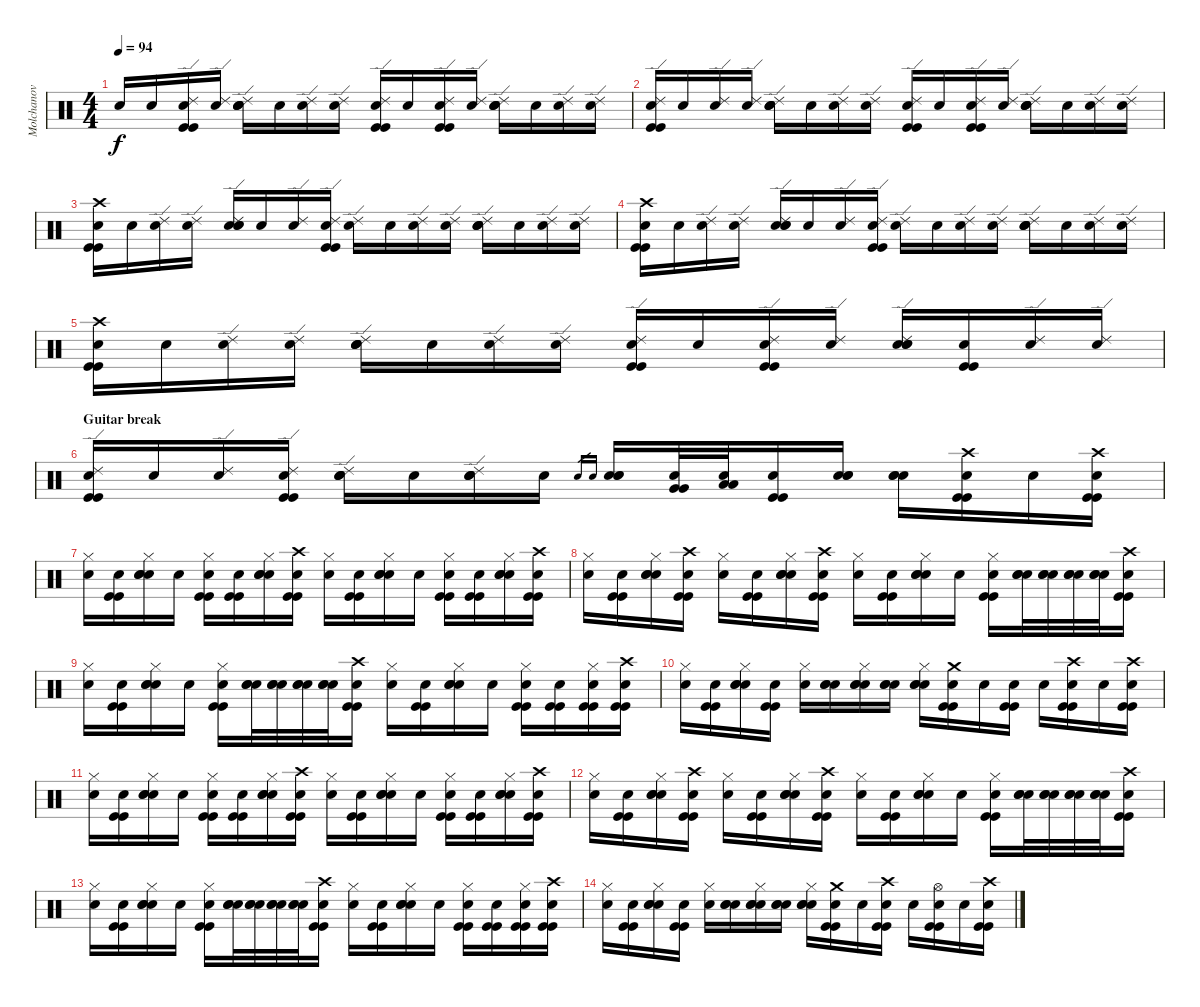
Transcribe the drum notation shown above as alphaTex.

\track ("Molchanov" "Molchanov") {instrument percussion}
\staff {score}
\articulation defaults
\ts (4 4)
\tempo 94
\clef neutral
\ks c "Snare (hit)"{x}.16{dy f} "Snare (hit)"{x}.16
("Ride (edge) 2" "Kick (hit)" "Kick (hit)" "Snare (hit)"{x}).16 ("Ride (edge) 2" "Snare (hit)"{x}).16 ("Ride (edge) 2" "Electric Snare (hit)" "Electric Snare (hit)" "Snare (hit)"{x}).16 "Snare (hit)"{x}.16 ("Ride (edge) 2" "Snare (hit)"{x}).16 ("Ride (edge) 2" "Snare (hit)"{x}).16 ("Ride (edge) 2" "Kick (hit)" "Kick (hit)" "Snare (hit)"{x}).16 "Snare (hit)"{x}.16 ("Ride (edge) 2" "Kick (hit)" "Kick (hit)" "Snare (hit)"{x}).16 ("Ride (edge) 2" "Snare (hit)"{x}).16 ("Ride (edge) 2" "Electric Snare (hit)" "Electric Snare (hit)" "Snare (hit)"{x}).16 "Snare (hit)"{x}.16 ("Ride (edge) 2" "Snare (hit)"{x}).16 ("Ride (edge) 2" "Snare (hit)"{x}).16 |
("Ride (edge) 2" "Kick (hit)" "Kick (hit)" "Snare (hit)"{x}).16 "Snare (hit)"{x}.16 ("Ride (edge) 2" "Snare (hit)"{x}).16 ("Ride (edge) 2" "Snare (hit)"{x}).16 ("Ride (edge) 2" "Electric Snare (hit)" "Electric Snare (hit)" "Snare (hit)"{x}).16 "Snare (hit)"{x}.16 ("Ride (edge) 2" "Snare (hit)"{x}).16 ("Ride (edge) 2" "Snare (hit)"{x}).16 ("Ride (edge) 2" "Kick (hit)" "Kick (hit)" "Snare (hit)"{x}).16 "Snare (hit)"{x}.16 ("Ride (edge) 2" "Kick (hit)" "Kick (hit)" "Snare (hit)"{x}).16 ("Ride (edge) 2" "Snare (hit)"{x}).16 ("Ride (edge) 2" "Electric Snare (hit)" "Electric Snare (hit)" "Snare (hit)"{x}).16 "Snare (hit)"{x}.16 ("Ride (edge) 2" "Snare (hit)"{x}).16 ("Ride (edge) 2" "Snare (hit)"{x}).16 |
("Crash high (hit)" "Kick (hit)" "Kick (hit)" "Snare (hit)"{x}).16 "Snare (hit)"{x}.16 ("Ride (edge) 2" "Snare (hit)"{x}).16 ("Ride (edge) 2" "Snare (hit)"{x}).16 ("Ride (edge) 2" "Electric Snare (hit)" "Electric Snare (hit)" "Snare (hit)"{x}).16 "Snare (hit)"{x}.16 ("Ride (edge) 2" "Snare (hit)"{x}).16 ("Ride (edge) 2" "Kick (hit)" "Kick (hit)" "Snare (hit)"{x}).16 ("Ride (edge) 2" "Snare (hit)"{x}).16 "Snare (hit)"{x}.16 ("Ride (edge) 2" "Snare (hit)"{x}).16 ("Ride (edge) 2" "Snare (hit)"{x}).16 ("Ride (edge) 2" "Electric Snare (hit)" "Electric Snare (hit)" "Snare (hit)"{x}).16 "Snare (hit)"{x}.16 ("Ride (edge) 2" "Snare (hit)"{x}).16 ("Ride (edge) 2" "Snare (hit)"{x}).16 |
("Crash high (hit)" "Kick (hit)" "Kick (hit)" "Snare (hit)"{x}).16 "Snare (hit)"{x}.16 ("Ride (edge) 2" "Snare (hit)"{x}).16 ("Ride (edge) 2" "Snare (hit)"{x}).16 ("Ride (edge) 2" "Electric Snare (hit)" "Electric Snare (hit)" "Snare (hit)"{x}).16 "Snare (hit)"{x}.16 ("Ride (edge) 2" "Snare (hit)"{x}).16 ("Ride (edge) 2" "Kick (hit)" "Kick (hit)" "Snare (hit)"{x}).16 ("Ride (edge) 2" "Snare (hit)"{x}).16 "Snare (hit)"{x}.16 ("Ride (edge) 2" "Snare (hit)"{x}).16 ("Ride (edge) 2" "Snare (hit)"{x}).16 ("Ride (edge) 2" "Electric Snare (hit)" "Electric Snare (hit)" "Snare (hit)"{x}).16 "Snare (hit)"{x}.16 ("Ride (edge) 2" "Snare (hit)"{x}).16 ("Ride (edge) 2" "Snare (hit)"{x}).16 |
("Crash high (hit)" "Kick (hit)" "Kick (hit)" "Snare (hit)"{x}).16 "Snare (hit)"{x}.16 ("Ride (edge) 2" "Snare (hit)"{x}).16 ("Ride (edge) 2" "Snare (hit)"{x}).16 ("Ride (edge) 2" "Electric Snare (hit)" "Electric Snare (hit)" "Snare (hit)"{x}).16 "Snare (hit)"{x}.16 ("Ride (edge) 2" "Snare (hit)"{x}).16 ("Ride (edge) 2" "Snare (hit)"{x}).16 ("Ride (edge) 2" "Kick (hit)" "Kick (hit)" "Snare (hit)"{x}).16 "Snare (hit)"{x}.16 ("Ride (edge) 2" "Kick (hit)" "Kick (hit)" "Snare (hit)"{x}).16 ("Ride (edge) 2" "Snare (hit)"{x}).16 ("Ride (edge) 2" "Electric Snare (hit)" "Electric Snare (hit)" "Snare (hit)"{x}).16 ("Kick (hit)" "Kick (hit)" "Snare (hit)"{x}).16 ("Ride (edge) 2" "Snare (hit)"{x}).16 ("Ride (edge) 2" "Snare (hit)"{x}).16 |
\section ("" "Guitar break")
("Ride (edge) 2" "Kick (hit)" "Kick (hit)" "Snare (hit)"{x}).16 "Snare (hit)"{x}.16 ("Ride (edge) 2" "Snare (hit)"{x}).16 ("Ride (edge) 2" "Kick (hit)" "Kick (hit)" "Snare (hit)"{x}).16 ("Ride (edge) 2" "Electric Snare (hit)" "Electric Snare (hit)" "Snare (hit)"{x}).16 "Snare (hit)"{x}.16 ("Ride (edge) 2" "Electric Snare (hit)" "Electric Snare (hit)" "Snare (hit)"{x}).16 "Snare (hit)"{x}.16 "Electric Snare (hit)".16{gr} "Electric Snare (hit)".16{gr} ("Electric Snare (hit)" "Electric Snare (hit)" "Snare (hit)"{x}).16 ("Very Low Tom (hit)" "Very Low Tom (hit)" "Snare (hit)"{x}).32 ("Low Floor Tom (hit)" "Low Floor Tom (hit)" "Snare (hit)"{x}).32 ("Kick (hit)" "Kick (hit)" "Snare (hit)"{x}).16 ("Electric Snare (hit)" "Electric Snare (hit)" "Snare (hit)"{x}).16 ("Electric Snare (hit)" "Electric Snare (hit)" "Snare (hit)"{x}).16 ("Crash high (hit)" "Kick (hit)" "Kick (hit)" "Snare (hit)"{x}).16 "Snare (hit)"{x}.16 ("Crash high (hit)" "Kick (hit)" "Kick (hit)" "Snare (hit)"{x}).16 |
("Hi-Hat (closed)" "Snare (hit)"{x}).16 ("Kick (hit)" "Kick (hit)" "Snare (hit)"{x}).16 ("Hi-Hat (closed)" "Electric Snare (hit)" "Electric Snare (hit)" "Snare (hit)"{x}).16 "Snare (hit)"{x}.16 ("Hi-Hat (closed)" "Kick (hit)" "Kick (hit)" "Snare (hit)"{x}).16 ("Kick (hit)" "Kick (hit)" "Snare (hit)"{x}).16 ("Hi-Hat (closed)" "Electric Snare (hit)" "Electric Snare (hit)" "Snare (hit)"{x}).16 ("Crash high (hit)" "Kick (hit)" "Kick (hit)" "Snare (hit)"{x}).16 ("Hi-Hat (closed)" "Snare (hit)"{x}).16 ("Kick (hit)" "Kick (hit)" "Snare (hit)"{x}).16 ("Hi-Hat (closed)" "Electric Snare (hit)" "Electric Snare (hit)" "Snare (hit)"{x}).16 "Snare (hit)"{x}.16 ("Hi-Hat (closed)" "Kick (hit)" "Kick (hit)" "Snare (hit)"{x}).16 ("Kick (hit)" "Kick (hit)" "Snare (hit)"{x}).16 ("Hi-Hat (closed)" "Electric Snare (hit)" "Electric Snare (hit)" "Snare (hit)"{x}).16 ("Crash high (hit)" "Kick (hit)" "Kick (hit)" "Snare (hit)"{x}).16 |
("Hi-Hat (closed)" "Snare (hit)"{x}).16 ("Kick (hit)" "Kick (hit)" "Snare (hit)"{x}).16 ("Hi-Hat (closed)" "Electric Snare (hit)" "Electric Snare (hit)" "Snare (hit)"{x}).16 ("Crash high (hit)" "Kick (hit)" "Kick (hit)" "Snare (hit)"{x}).16 ("Hi-Hat (closed)" "Snare (hit)"{x}).16 ("Kick (hit)" "Kick (hit)" "Snare (hit)"{x}).16 ("Hi-Hat (closed)" "Electric Snare (hit)" "Electric Snare (hit)" "Snare (hit)"{x}).16 ("Crash high (hit)" "Kick (hit)" "Kick (hit)" "Snare (hit)"{x}).16 ("Hi-Hat (closed)" "Snare (hit)"{x}).16 ("Kick (hit)" "Kick (hit)" "Snare (hit)"{x}).16 ("Hi-Hat (closed)" "Electric Snare (hit)" "Electric Snare (hit)" "Snare (hit)"{x}).16 "Snare (hit)"{x}.16 ("Hi-Hat (closed)" "Kick (hit)" "Kick (hit)" "Snare (hit)"{x}).16 ("Electric Snare (hit)" "Electric Snare (hit)" "Snare (hit)"{x}).32 ("Electric Snare (hit)" "Electric Snare (hit)" "Snare (hit)"{x}).32 ("Electric Snare (hit)" "Electric Snare (hit)" "Snare (hit)"{x}).32 ("Electric Snare (hit)" "Electric Snare (hit)" "Snare (hit)"{x}).32 ("Crash high (hit)" "Kick (hit)" "Kick (hit)" "Snare (hit)"{x}).16 |
("Hi-Hat (closed)" "Snare (hit)"{x}).16 ("Kick (hit)" "Kick (hit)" "Snare (hit)"{x}).16 ("Hi-Hat (closed)" "Electric Snare (hit)" "Electric Snare (hit)" "Snare (hit)"{x}).16 "Snare (hit)"{x}.16 ("Hi-Hat (closed)" "Kick (hit)" "Kick (hit)" "Snare (hit)"{x}).16 ("Electric Snare (hit)" "Electric Snare (hit)" "Snare (hit)"{x}).32 ("Electric Snare (hit)" "Electric Snare (hit)" "Snare (hit)"{x}).32 ("Electric Snare (hit)" "Electric Snare (hit)" "Snare (hit)"{x}).32 ("Electric Snare (hit)" "Electric Snare (hit)" "Snare (hit)"{x}).32 ("Crash high (hit)" "Kick (hit)" "Kick (hit)" "Snare (hit)"{x}).16 ("Hi-Hat (closed)" "Snare (hit)"{x}).16 ("Kick (hit)" "Kick (hit)" "Snare (hit)"{x}).16 ("Hi-Hat (closed)" "Electric Snare (hit)" "Electric Snare (hit)" "Snare (hit)"{x}).16 "Snare (hit)"{x}.16 ("Hi-Hat (closed)" "Kick (hit)" "Kick (hit)" "Snare (hit)"{x}).16 ("Kick (hit)" "Kick (hit)" "Snare (hit)"{x}).16 ("Hi-Hat (closed)" "Kick (hit)" "Kick (hit)" "Snare (hit)"{x}).16 ("Crash high (hit)" "Kick (hit)" "Kick (hit)" "Snare (hit)"{x}).16 |
("Hi-Hat (closed)" "Snare (hit)"{x}).16 ("Kick (hit)" "Kick (hit)" "Snare (hit)"{x}).16 ("Hi-Hat (closed)" "Electric Snare (hit)" "Electric Snare (hit)" "Snare (hit)"{x}).16 ("Kick (hit)" "Kick (hit)" "Snare (hit)"{x}).16 ("Hi-Hat (closed)" "Snare (hit)"{x}).16 ("Electric Snare (hit)" "Electric Snare (hit)" "Snare (hit)"{x}).16 ("Hi-Hat (closed)" "Electric Snare (hit)" "Electric Snare (hit)" "Snare (hit)"{x}).16 ("Electric Snare (hit)" "Electric Snare (hit)" "Snare (hit)"{x}).16 ("Hi-Hat (closed)" "Electric Snare (hit)" "Electric Snare (hit)" "Snare (hit)"{x}).16 ("Crash medium (hit)" "Kick (hit)" "Kick (hit)" "Snare (hit)"{x}).16 "Snare (hit)"{x}.16 ("Kick (hit)" "Kick (hit)" "Snare (hit)"{x}).16 "Snare (hit)"{x}.16 ("Crash high (hit)" "Kick (hit)" "Kick (hit)" "Snare (hit)"{x}).16 "Snare (hit)"{x}.16 ("Crash high (hit)" "Kick (hit)" "Kick (hit)" "Snare (hit)"{x}).16 |
("Hi-Hat (closed)" "Snare (hit)"{x}).16 ("Kick (hit)" "Kick (hit)" "Snare (hit)"{x}).16 ("Hi-Hat (closed)" "Electric Snare (hit)" "Electric Snare (hit)" "Snare (hit)"{x}).16 "Snare (hit)"{x}.16 ("Hi-Hat (closed)" "Kick (hit)" "Kick (hit)" "Snare (hit)"{x}).16 ("Kick (hit)" "Kick (hit)" "Snare (hit)"{x}).16 ("Hi-Hat (closed)" "Electric Snare (hit)" "Electric Snare (hit)" "Snare (hit)"{x}).16 ("Crash high (hit)" "Kick (hit)" "Kick (hit)" "Snare (hit)"{x}).16 ("Hi-Hat (closed)" "Snare (hit)"{x}).16 ("Kick (hit)" "Kick (hit)" "Snare (hit)"{x}).16 ("Hi-Hat (closed)" "Electric Snare (hit)" "Electric Snare (hit)" "Snare (hit)"{x}).16 "Snare (hit)"{x}.16 ("Hi-Hat (closed)" "Kick (hit)" "Kick (hit)" "Snare (hit)"{x}).16 ("Kick (hit)" "Kick (hit)" "Snare (hit)"{x}).16 ("Hi-Hat (closed)" "Electric Snare (hit)" "Electric Snare (hit)" "Snare (hit)"{x}).16 ("Crash high (hit)" "Kick (hit)" "Kick (hit)" "Snare (hit)"{x}).16 |
("Hi-Hat (closed)" "Snare (hit)"{x}).16 ("Kick (hit)" "Kick (hit)" "Snare (hit)"{x}).16 ("Hi-Hat (closed)" "Electric Snare (hit)" "Electric Snare (hit)" "Snare (hit)"{x}).16 ("Crash high (hit)" "Kick (hit)" "Kick (hit)" "Snare (hit)"{x}).16 ("Hi-Hat (closed)" "Snare (hit)"{x}).16 ("Kick (hit)" "Kick (hit)" "Snare (hit)"{x}).16 ("Hi-Hat (closed)" "Electric Snare (hit)" "Electric Snare (hit)" "Snare (hit)"{x}).16 ("Crash high (hit)" "Kick (hit)" "Kick (hit)" "Snare (hit)"{x}).16 ("Hi-Hat (closed)" "Snare (hit)"{x}).16 ("Kick (hit)" "Kick (hit)" "Snare (hit)"{x}).16 ("Hi-Hat (closed)" "Electric Snare (hit)" "Electric Snare (hit)" "Snare (hit)"{x}).16 "Snare (hit)"{x}.16 ("Hi-Hat (closed)" "Kick (hit)" "Kick (hit)" "Snare (hit)"{x}).16 ("Electric Snare (hit)" "Electric Snare (hit)" "Snare (hit)"{x}).32 ("Electric Snare (hit)" "Electric Snare (hit)" "Snare (hit)"{x}).32 ("Electric Snare (hit)" "Electric Snare (hit)" "Snare (hit)"{x}).32 ("Electric Snare (hit)" "Electric Snare (hit)" "Snare (hit)"{x}).32 ("Crash high (hit)" "Kick (hit)" "Kick (hit)" "Snare (hit)"{x}).16 |
("Hi-Hat (closed)" "Snare (hit)"{x}).16 ("Kick (hit)" "Kick (hit)" "Snare (hit)"{x}).16 ("Hi-Hat (closed)" "Electric Snare (hit)" "Electric Snare (hit)" "Snare (hit)"{x}).16 "Snare (hit)"{x}.16 ("Hi-Hat (closed)" "Kick (hit)" "Kick (hit)" "Snare (hit)"{x}).16 ("Electric Snare (hit)" "Electric Snare (hit)" "Snare (hit)"{x}).32 ("Electric Snare (hit)" "Electric Snare (hit)" "Snare (hit)"{x}).32 ("Electric Snare (hit)" "Electric Snare (hit)" "Snare (hit)"{x}).32 ("Electric Snare (hit)" "Electric Snare (hit)" "Snare (hit)"{x}).32 ("Crash high (hit)" "Kick (hit)" "Kick (hit)" "Snare (hit)"{x}).16 ("Hi-Hat (closed)" "Snare (hit)"{x}).16 ("Kick (hit)" "Kick (hit)" "Snare (hit)"{x}).16 ("Hi-Hat (closed)" "Electric Snare (hit)" "Electric Snare (hit)" "Snare (hit)"{x}).16 "Snare (hit)"{x}.16 ("Hi-Hat (closed)" "Kick (hit)" "Kick (hit)" "Snare (hit)"{x}).16 ("Kick (hit)" "Kick (hit)" "Snare (hit)"{x}).16 ("Hi-Hat (closed)" "Kick (hit)" "Kick (hit)" "Snare (hit)"{x}).16 ("Crash high (hit)" "Kick (hit)" "Kick (hit)" "Snare (hit)"{x}).16 |
("Hi-Hat (closed)" "Snare (hit)"{x}).16 ("Kick (hit)" "Kick (hit)" "Snare (hit)"{x}).16 ("Hi-Hat (closed)" "Electric Snare (hit)" "Electric Snare (hit)" "Snare (hit)"{x}).16 ("Kick (hit)" "Kick (hit)" "Snare (hit)"{x}).16 ("Hi-Hat (closed)" "Snare (hit)"{x}).16 ("Electric Snare (hit)" "Electric Snare (hit)" "Snare (hit)"{x}).16 ("Hi-Hat (closed)" "Electric Snare (hit)" "Electric Snare (hit)" "Snare (hit)"{x}).16 ("Electric Snare (hit)" "Electric Snare (hit)" "Snare (hit)"{x}).16 ("Hi-Hat (closed)" "Electric Snare (hit)" "Electric Snare (hit)" "Snare (hit)"{x}).16 ("Crash medium (hit)" "Kick (hit)" "Kick (hit)" "Snare (hit)"{x}).16 "Snare (hit)"{x}.16 ("Crash high (hit)" "Kick (hit)" "Kick (hit)" "Snare (hit)"{x}).16 "Snare (hit)"{x}.16 ("Hi-Hat (open)" "Kick (hit)" "Kick (hit)" "Snare (hit)"{x}).16 "Snare (hit)"{x}.16 ("Crash high (hit)" "Kick (hit)" "Kick (hit)" "Snare (hit)"{x}).16
